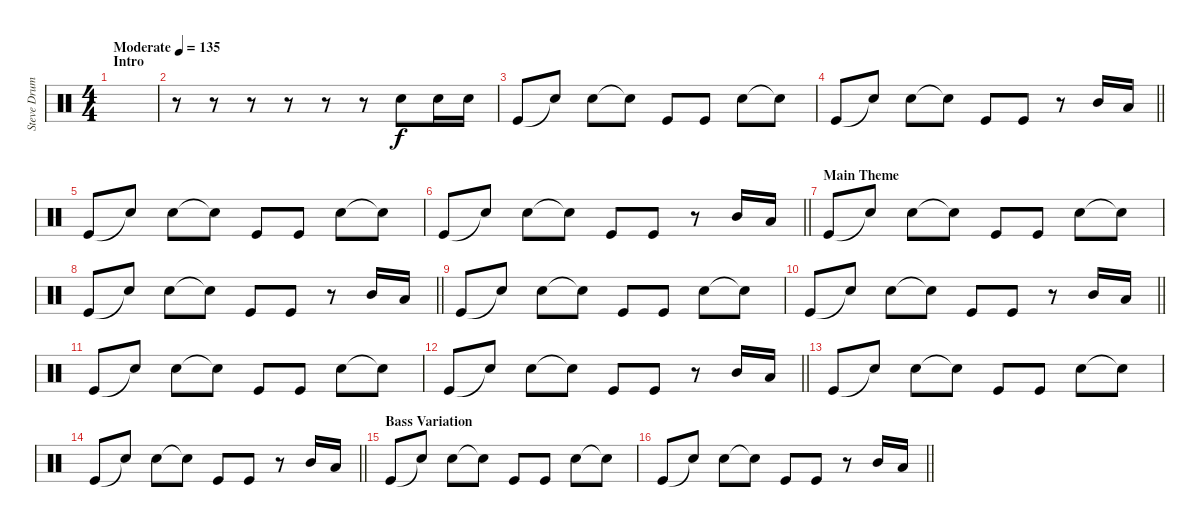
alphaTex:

\track ("Steve Drums" "Steve Drum") {instrument percussion}
\staff {score}
\articulation defaults
\ts (4 4)
\section ("" "Intro")
\tempo (135 "Moderate")
\clef neutral
\ks c
|
r.8 r.8 r.8 r.8 r.8 r.8 "Snare (hit) 2".8 "Snare (hit) 2".16 "Snare (hit) 2".16 |
"Kick (hit)".8 "Snare (hit)"{t}.8 "Snare (hit) 2".8 "Snare (hit)"{t}.8 "Kick (hit)".8 "Kick (hit)".8 "Snare (hit) 2".8 "Snare (hit)"{t}.8 |
\barLineRight lightlight "Kick (hit)".8 "Snare (hit)"{t}.8 "Snare (hit) 2".8 "Snare (hit)"{t}.8 "Kick (hit)".8 "Kick (hit)".8
r.8 "Mid Tom (hit)".16 "Low Tom (hit)".16 |
"Kick (hit)".8 "Snare (hit)"{t}.8 "Snare (hit) 2".8 "Snare (hit)"{t}.8 "Kick (hit)".8 "Kick (hit)".8 "Snare (hit) 2".8 "Snare (hit)"{t}.8 |
\barLineRight lightlight "Kick (hit)".8 "Snare (hit)"{t}.8 "Snare (hit) 2".8 "Snare (hit)"{t}.8 "Kick (hit)".8 "Kick (hit)".8
r.8 "Mid Tom (hit)".16 "Low Tom (hit)".16 |
\section ("" "Main Theme")
"Kick (hit)".8 "Snare (hit)"{t}.8 "Snare (hit) 2".8 "Snare (hit)"{t}.8 "Kick (hit)".8 "Kick (hit)".8 "Snare (hit) 2".8 "Snare (hit)"{t}.8 |
\barLineRight lightlight "Kick (hit)".8 "Snare (hit)"{t}.8 "Snare (hit) 2".8 "Snare (hit)"{t}.8 "Kick (hit)".8 "Kick (hit)".8
r.8 "Mid Tom (hit)".16 "Low Tom (hit)".16 |
"Kick (hit)".8 "Snare (hit)"{t}.8 "Snare (hit) 2".8 "Snare (hit)"{t}.8 "Kick (hit)".8 "Kick (hit)".8 "Snare (hit) 2".8 "Snare (hit)"{t}.8 |
\barLineRight lightlight "Kick (hit)".8 "Snare (hit)"{t}.8 "Snare (hit) 2".8 "Snare (hit)"{t}.8 "Kick (hit)".8 "Kick (hit)".8
r.8 "Mid Tom (hit)".16 "Low Tom (hit)".16 |
"Kick (hit)".8 "Snare (hit)"{t}.8 "Snare (hit) 2".8 "Snare (hit)"{t}.8 "Kick (hit)".8 "Kick (hit)".8 "Snare (hit) 2".8 "Snare (hit)"{t}.8 |
\barLineRight lightlight "Kick (hit)".8 "Snare (hit)"{t}.8 "Snare (hit) 2".8 "Snare (hit)"{t}.8 "Kick (hit)".8 "Kick (hit)".8
r.8 "Mid Tom (hit)".16 "Low Tom (hit)".16 |
"Kick (hit)".8 "Snare (hit)"{t}.8 "Snare (hit) 2".8 "Snare (hit)"{t}.8 "Kick (hit)".8 "Kick (hit)".8 "Snare (hit) 2".8 "Snare (hit)"{t}.8 |
\barLineRight lightlight "Kick (hit)".8 "Snare (hit)"{t}.8 "Snare (hit) 2".8 "Snare (hit)"{t}.8 "Kick (hit)".8 "Kick (hit)".8
r.8 "Mid Tom (hit)".16 "Low Tom (hit)".16 |
\section ("" "Bass Variation")
"Kick (hit)".8 "Snare (hit)"{t}.8 "Snare (hit) 2".8 "Snare (hit)"{t}.8 "Kick (hit)".8 "Kick (hit)".8 "Snare (hit) 2".8 "Snare (hit)"{t}.8 |
\barLineRight lightlight "Kick (hit)".8 "Snare (hit)"{t}.8 "Snare (hit) 2".8 "Snare (hit)"{t}.8 "Kick (hit)".8 "Kick (hit)".8
r.8 "Mid Tom (hit)".16 "Low Tom (hit)".16
